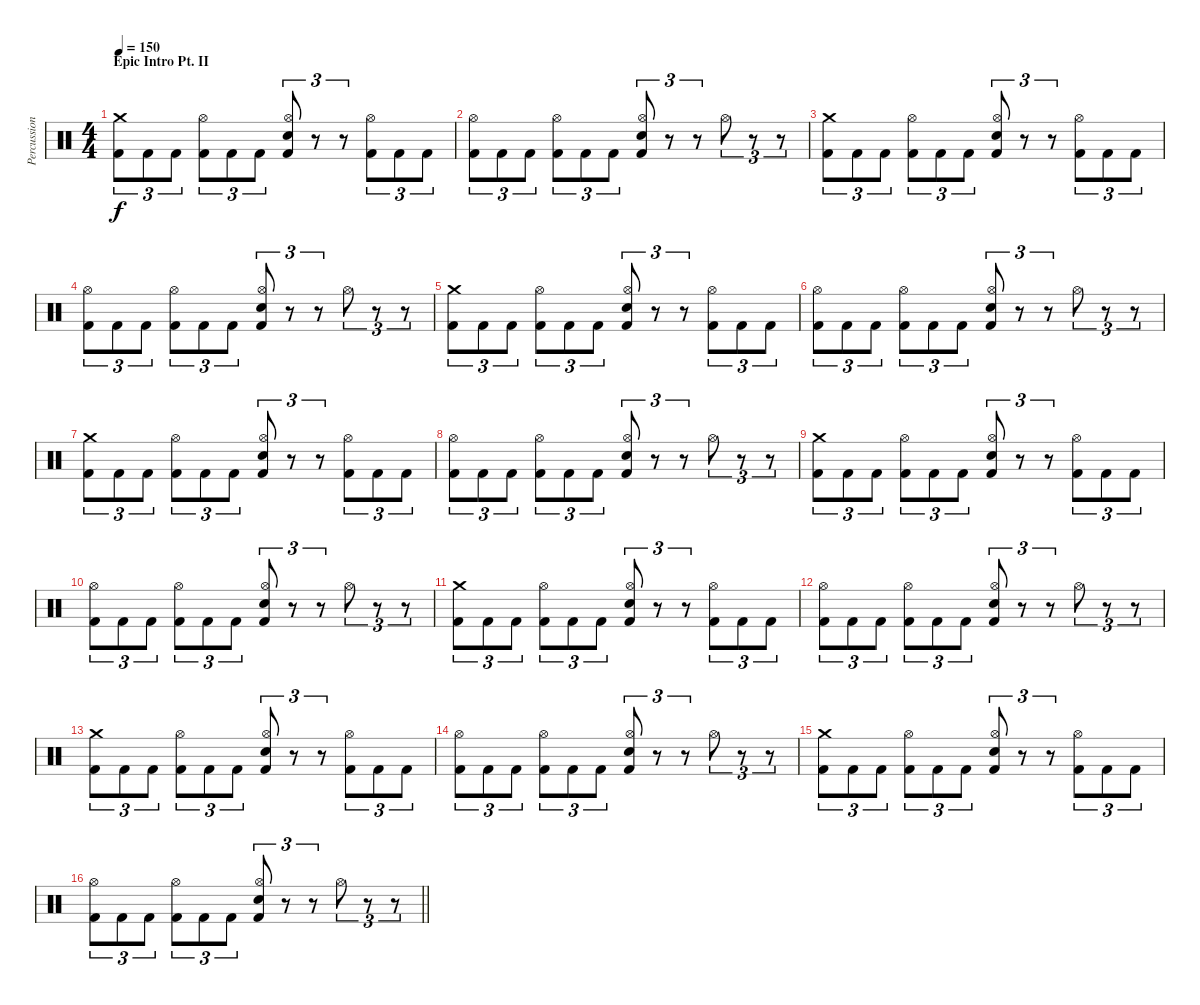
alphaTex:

\track ("Percussion" "Percussion") {instrument percussion}
\staff {score}
\articulation defaults
\ts (4 4)
\section ("" "Epic Intro Pt. II")
\tempo 150
\clef neutral
\ks c
("Crash medium (hit)" "Kick (hit) 2").8{tu (3 2) dy f} "Kick (hit) 2".8{tu (3 2)} "Kick (hit) 2".8{tu (3 2)} ("Hi-Hat (open)" "Kick (hit) 2").8{tu (3 2)} "Kick (hit) 2".8{tu (3 2)} "Kick (hit) 2".8{tu (3 2)} ("Hi-Hat (open)" "Electric Snare (hit)" "Kick (hit) 2").8{tu (3 2)} r.8{tu (3 2)} r.8{tu (3 2)} ("Hi-Hat (open)" "Kick (hit) 2").8{tu (3 2)} "Kick (hit) 2".8{tu (3 2)} "Kick (hit) 2".8{tu (3 2)} |
("Hi-Hat (open)" "Kick (hit) 2").8{tu (3 2)} "Kick (hit) 2".8{tu (3 2)} "Kick (hit) 2".8{tu (3 2)} ("Hi-Hat (open)" "Kick (hit) 2").8{tu (3 2)} "Kick (hit) 2".8{tu (3 2)} "Kick (hit) 2".8{tu (3 2)} ("Hi-Hat (open)" "Electric Snare (hit)" "Kick (hit) 2").8{tu (3 2)} r.8{tu (3 2)} r.8{tu (3 2)} "Hi-Hat (open)".8{tu (3 2)} r.8{tu (3 2)} r.8{tu (3 2)} |
("Crash medium (hit)" "Kick (hit) 2").8{tu (3 2)} "Kick (hit) 2".8{tu (3 2)} "Kick (hit) 2".8{tu (3 2)} ("Hi-Hat (open)" "Kick (hit) 2").8{tu (3 2)} "Kick (hit) 2".8{tu (3 2)} "Kick (hit) 2".8{tu (3 2)} ("Hi-Hat (open)" "Electric Snare (hit)" "Kick (hit) 2").8{tu (3 2)} r.8{tu (3 2)} r.8{tu (3 2)} ("Hi-Hat (open)" "Kick (hit) 2").8{tu (3 2)} "Kick (hit) 2".8{tu (3 2)} "Kick (hit) 2".8{tu (3 2)} |
("Hi-Hat (open)" "Kick (hit) 2").8{tu (3 2)} "Kick (hit) 2".8{tu (3 2)} "Kick (hit) 2".8{tu (3 2)} ("Hi-Hat (open)" "Kick (hit) 2").8{tu (3 2)} "Kick (hit) 2".8{tu (3 2)} "Kick (hit) 2".8{tu (3 2)} ("Hi-Hat (open)" "Electric Snare (hit)" "Kick (hit) 2").8{tu (3 2)} r.8{tu (3 2)} r.8{tu (3 2)} "Hi-Hat (open)".8{tu (3 2)} r.8{tu (3 2)} r.8{tu (3 2)} |
("Crash medium (hit)" "Kick (hit) 2").8{tu (3 2)} "Kick (hit) 2".8{tu (3 2)} "Kick (hit) 2".8{tu (3 2)} ("Hi-Hat (open)" "Kick (hit) 2").8{tu (3 2)} "Kick (hit) 2".8{tu (3 2)} "Kick (hit) 2".8{tu (3 2)} ("Hi-Hat (open)" "Electric Snare (hit)" "Kick (hit) 2").8{tu (3 2)} r.8{tu (3 2)} r.8{tu (3 2)} ("Hi-Hat (open)" "Kick (hit) 2").8{tu (3 2)} "Kick (hit) 2".8{tu (3 2)} "Kick (hit) 2".8{tu (3 2)} |
("Hi-Hat (open)" "Kick (hit) 2").8{tu (3 2)} "Kick (hit) 2".8{tu (3 2)} "Kick (hit) 2".8{tu (3 2)} ("Hi-Hat (open)" "Kick (hit) 2").8{tu (3 2)} "Kick (hit) 2".8{tu (3 2)} "Kick (hit) 2".8{tu (3 2)} ("Hi-Hat (open)" "Electric Snare (hit)" "Kick (hit) 2").8{tu (3 2)} r.8{tu (3 2)} r.8{tu (3 2)} "Hi-Hat (open)".8{tu (3 2)} r.8{tu (3 2)} r.8{tu (3 2)} |
("Crash medium (hit)" "Kick (hit) 2").8{tu (3 2)} "Kick (hit) 2".8{tu (3 2)} "Kick (hit) 2".8{tu (3 2)} ("Hi-Hat (open)" "Kick (hit) 2").8{tu (3 2)} "Kick (hit) 2".8{tu (3 2)} "Kick (hit) 2".8{tu (3 2)} ("Hi-Hat (open)" "Electric Snare (hit)" "Kick (hit) 2").8{tu (3 2)} r.8{tu (3 2)} r.8{tu (3 2)} ("Hi-Hat (open)" "Kick (hit) 2").8{tu (3 2)} "Kick (hit) 2".8{tu (3 2)} "Kick (hit) 2".8{tu (3 2)} |
("Hi-Hat (open)" "Kick (hit) 2").8{tu (3 2)} "Kick (hit) 2".8{tu (3 2)} "Kick (hit) 2".8{tu (3 2)} ("Hi-Hat (open)" "Kick (hit) 2").8{tu (3 2)} "Kick (hit) 2".8{tu (3 2)} "Kick (hit) 2".8{tu (3 2)} ("Hi-Hat (open)" "Electric Snare (hit)" "Kick (hit) 2").8{tu (3 2)} r.8{tu (3 2)} r.8{tu (3 2)} "Hi-Hat (open)".8{tu (3 2)} r.8{tu (3 2)} r.8{tu (3 2)} |
("Crash medium (hit)" "Kick (hit) 2").8{tu (3 2)} "Kick (hit) 2".8{tu (3 2)} "Kick (hit) 2".8{tu (3 2)} ("Hi-Hat (open)" "Kick (hit) 2").8{tu (3 2)} "Kick (hit) 2".8{tu (3 2)} "Kick (hit) 2".8{tu (3 2)} ("Hi-Hat (open)" "Electric Snare (hit)" "Kick (hit) 2").8{tu (3 2)} r.8{tu (3 2)} r.8{tu (3 2)} ("Hi-Hat (open)" "Kick (hit) 2").8{tu (3 2)} "Kick (hit) 2".8{tu (3 2)} "Kick (hit) 2".8{tu (3 2)} |
("Hi-Hat (open)" "Kick (hit) 2").8{tu (3 2)} "Kick (hit) 2".8{tu (3 2)} "Kick (hit) 2".8{tu (3 2)} ("Hi-Hat (open)" "Kick (hit) 2").8{tu (3 2)} "Kick (hit) 2".8{tu (3 2)} "Kick (hit) 2".8{tu (3 2)} ("Hi-Hat (open)" "Electric Snare (hit)" "Kick (hit) 2").8{tu (3 2)} r.8{tu (3 2)} r.8{tu (3 2)} "Hi-Hat (open)".8{tu (3 2)} r.8{tu (3 2)} r.8{tu (3 2)} |
("Crash medium (hit)" "Kick (hit) 2").8{tu (3 2)} "Kick (hit) 2".8{tu (3 2)} "Kick (hit) 2".8{tu (3 2)} ("Hi-Hat (open)" "Kick (hit) 2").8{tu (3 2)} "Kick (hit) 2".8{tu (3 2)} "Kick (hit) 2".8{tu (3 2)} ("Hi-Hat (open)" "Electric Snare (hit)" "Kick (hit) 2").8{tu (3 2)} r.8{tu (3 2)} r.8{tu (3 2)} ("Hi-Hat (open)" "Kick (hit) 2").8{tu (3 2)} "Kick (hit) 2".8{tu (3 2)} "Kick (hit) 2".8{tu (3 2)} |
("Hi-Hat (open)" "Kick (hit) 2").8{tu (3 2)} "Kick (hit) 2".8{tu (3 2)} "Kick (hit) 2".8{tu (3 2)} ("Hi-Hat (open)" "Kick (hit) 2").8{tu (3 2)} "Kick (hit) 2".8{tu (3 2)} "Kick (hit) 2".8{tu (3 2)} ("Hi-Hat (open)" "Electric Snare (hit)" "Kick (hit) 2").8{tu (3 2)} r.8{tu (3 2)} r.8{tu (3 2)} "Hi-Hat (open)".8{tu (3 2)} r.8{tu (3 2)} r.8{tu (3 2)} |
("Crash medium (hit)" "Kick (hit) 2").8{tu (3 2)} "Kick (hit) 2".8{tu (3 2)} "Kick (hit) 2".8{tu (3 2)} ("Hi-Hat (open)" "Kick (hit) 2").8{tu (3 2)} "Kick (hit) 2".8{tu (3 2)} "Kick (hit) 2".8{tu (3 2)} ("Hi-Hat (open)" "Electric Snare (hit)" "Kick (hit) 2").8{tu (3 2)} r.8{tu (3 2)} r.8{tu (3 2)} ("Hi-Hat (open)" "Kick (hit) 2").8{tu (3 2)} "Kick (hit) 2".8{tu (3 2)} "Kick (hit) 2".8{tu (3 2)} |
("Hi-Hat (open)" "Kick (hit) 2").8{tu (3 2)} "Kick (hit) 2".8{tu (3 2)} "Kick (hit) 2".8{tu (3 2)} ("Hi-Hat (open)" "Kick (hit) 2").8{tu (3 2)} "Kick (hit) 2".8{tu (3 2)} "Kick (hit) 2".8{tu (3 2)} ("Hi-Hat (open)" "Electric Snare (hit)" "Kick (hit) 2").8{tu (3 2)} r.8{tu (3 2)} r.8{tu (3 2)} "Hi-Hat (open)".8{tu (3 2)} r.8{tu (3 2)} r.8{tu (3 2)} |
("Crash medium (hit)" "Kick (hit) 2").8{tu (3 2)} "Kick (hit) 2".8{tu (3 2)} "Kick (hit) 2".8{tu (3 2)} ("Hi-Hat (open)" "Kick (hit) 2").8{tu (3 2)} "Kick (hit) 2".8{tu (3 2)} "Kick (hit) 2".8{tu (3 2)} ("Hi-Hat (open)" "Electric Snare (hit)" "Kick (hit) 2").8{tu (3 2)} r.8{tu (3 2)} r.8{tu (3 2)} ("Hi-Hat (open)" "Kick (hit) 2").8{tu (3 2)} "Kick (hit) 2".8{tu (3 2)} "Kick (hit) 2".8{tu (3 2)} |
\barLineRight lightlight
("Hi-Hat (open)" "Kick (hit) 2").8{tu (3 2)} "Kick (hit) 2".8{tu (3 2)} "Kick (hit) 2".8{tu (3 2)} ("Hi-Hat (open)" "Kick (hit) 2").8{tu (3 2)} "Kick (hit) 2".8{tu (3 2)} "Kick (hit) 2".8{tu (3 2)} ("Hi-Hat (open)" "Electric Snare (hit)" "Kick (hit) 2").8{tu (3 2)} r.8{tu (3 2)} r.8{tu (3 2)} "Hi-Hat (open)".8{tu (3 2)} r.8{tu (3 2)} r.8{tu (3 2)}
